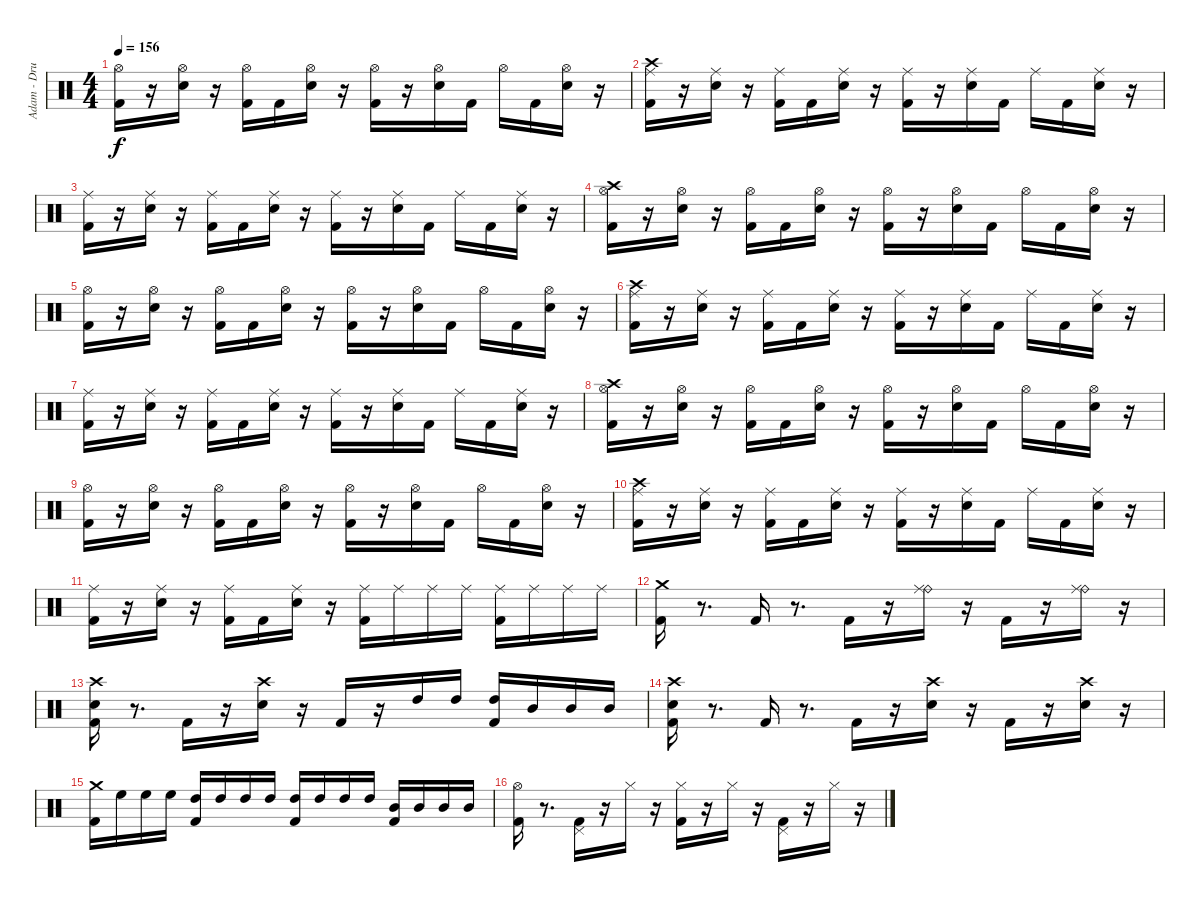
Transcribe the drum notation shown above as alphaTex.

\track ("Adam - Drums" "Adam - Dru") {instrument percussion}
\staff {score}
\articulation defaults
\ts (4 4)
\tempo 156
\clef neutral
\ks c
("Hi-Hat (open)" "Kick (hit) 2").16{dy f} r.16 ("Hi-Hat (open)" "Snare (hit) 2").16 r.16 ("Hi-Hat (open)" "Kick (hit) 2").16 "Kick (hit) 2".16 ("Hi-Hat (open)" "Snare (hit) 2").16 r.16 ("Hi-Hat (open)" "Kick (hit) 2").16 r.16 ("Hi-Hat (open)" "Snare (hit) 2").16 "Kick (hit) 2".16 "Hi-Hat (open)".16 "Kick (hit) 2".16 ("Hi-Hat (open)" "Snare (hit) 2").16 r.16 |
("Crash high (hit)" "Kick (hit) 2" "Ride (middle)").16 r.16 ("Snare (hit) 2" "Ride (middle)").16 r.16 ("Kick (hit) 2" "Ride (middle)").16 "Kick (hit) 2".16 ("Snare (hit) 2" "Ride (middle)").16 r.16 ("Ride (middle)" "Kick (hit) 2").16 r.16 ("Snare (hit) 2" "Ride (middle)").16 "Kick (hit) 2".16 "Ride (middle)".16 "Kick (hit) 2".16 ("Snare (hit) 2" "Ride (middle)").16 r.16 |
("Kick (hit) 2" "Ride (middle)").16 r.16 ("Snare (hit) 2" "Ride (middle)").16 r.16 ("Kick (hit) 2" "Ride (middle)").16 "Kick (hit) 2".16 ("Snare (hit) 2" "Ride (middle)").16 r.16 ("Kick (hit) 2" "Ride (middle)").16 r.16 ("Snare (hit) 2" "Ride (middle)").16 "Kick (hit) 2".16 "Ride (middle)".16 "Kick (hit) 2".16 ("Snare (hit) 2" "Ride (middle)").16 r.16 |
("Hi-Hat (open)" "Crash high (hit)" "Kick (hit) 2").16 r.16 ("Hi-Hat (open)" "Snare (hit) 2").16 r.16 ("Hi-Hat (open)" "Kick (hit) 2").16 "Kick (hit) 2".16 ("Hi-Hat (open)" "Snare (hit) 2").16 r.16 ("Hi-Hat (open)" "Kick (hit) 2").16 r.16 ("Hi-Hat (open)" "Snare (hit) 2").16 "Kick (hit) 2".16 "Hi-Hat (open)".16 "Kick (hit) 2".16 ("Hi-Hat (open)" "Snare (hit) 2").16 r.16 |
("Hi-Hat (open)" "Kick (hit) 2").16 r.16 ("Hi-Hat (open)" "Snare (hit) 2").16 r.16 ("Hi-Hat (open)" "Kick (hit) 2").16 "Kick (hit) 2".16 ("Hi-Hat (open)" "Snare (hit) 2").16 r.16 ("Hi-Hat (open)" "Kick (hit) 2").16 r.16 ("Hi-Hat (open)" "Snare (hit) 2").16 "Kick (hit) 2".16 "Hi-Hat (open)".16 "Kick (hit) 2".16 ("Hi-Hat (open)" "Snare (hit) 2").16 r.16 |
("Crash high (hit)" "Kick (hit) 2" "Ride (middle)").16 r.16 ("Snare (hit) 2" "Ride (middle)").16 r.16 ("Kick (hit) 2" "Ride (middle)").16 "Kick (hit) 2".16 ("Snare (hit) 2" "Ride (middle)").16 r.16 ("Ride (middle)" "Kick (hit) 2").16 r.16 ("Snare (hit) 2" "Ride (middle)").16 "Kick (hit) 2".16 "Ride (middle)".16 "Kick (hit) 2".16 ("Snare (hit) 2" "Ride (middle)").16 r.16 |
("Kick (hit) 2" "Ride (middle)").16 r.16 ("Snare (hit) 2" "Ride (middle)").16 r.16 ("Kick (hit) 2" "Ride (middle)").16 "Kick (hit) 2".16 ("Snare (hit) 2" "Ride (middle)").16 r.16 ("Kick (hit) 2" "Ride (middle)").16 r.16 ("Snare (hit) 2" "Ride (middle)").16 "Kick (hit) 2".16 "Ride (middle)".16 "Kick (hit) 2".16 ("Snare (hit) 2" "Ride (middle)").16 r.16 |
("Hi-Hat (open)" "Crash high (hit)" "Kick (hit) 2").16 r.16 ("Hi-Hat (open)" "Snare (hit) 2").16 r.16 ("Hi-Hat (open)" "Kick (hit) 2").16 "Kick (hit) 2".16 ("Hi-Hat (open)" "Snare (hit) 2").16 r.16 ("Hi-Hat (open)" "Kick (hit) 2").16 r.16 ("Hi-Hat (open)" "Snare (hit) 2").16 "Kick (hit) 2".16 "Hi-Hat (open)".16 "Kick (hit) 2".16 ("Hi-Hat (open)" "Snare (hit) 2").16 r.16 |
("Hi-Hat (open)" "Kick (hit) 2").16 r.16 ("Hi-Hat (open)" "Snare (hit) 2").16 r.16 ("Hi-Hat (open)" "Kick (hit) 2").16 "Kick (hit) 2".16 ("Hi-Hat (open)" "Snare (hit) 2").16 r.16 ("Hi-Hat (open)" "Kick (hit) 2").16 r.16 ("Hi-Hat (open)" "Snare (hit) 2").16 "Kick (hit) 2".16 "Hi-Hat (open)".16 "Kick (hit) 2".16 ("Hi-Hat (open)" "Snare (hit) 2").16 r.16 |
("Crash high (hit)" "Kick (hit) 2" "Ride (middle)").16 r.16 ("Snare (hit) 2" "Ride (middle)").16 r.16 ("Kick (hit) 2" "Ride (middle)").16 "Kick (hit) 2".16 ("Snare (hit) 2" "Ride (middle)").16 r.16 ("Ride (middle)" "Kick (hit) 2").16 r.16 ("Snare (hit) 2" "Ride (middle)").16 "Kick (hit) 2".16 "Ride (middle)".16 "Kick (hit) 2".16 ("Snare (hit) 2" "Ride (middle)").16 r.16 |
("Kick (hit) 2" "Ride (middle)").16 r.16 ("Snare (hit) 2" "Ride (middle)").16 r.16 ("Kick (hit) 2" "Ride (middle)").16 "Kick (hit) 2".16 ("Snare (hit) 2" "Ride (middle)").16 r.16 ("Ride (middle)" "Kick (hit) 2").16 "Ride (middle)".16 "Ride (middle)".16 "Ride (middle)".16 ("Ride (middle)" "Kick (hit) 2").16 "Ride (middle)".16 "Ride (middle)".16 "Ride (middle)".16 |
("Crash medium (hit)" "Kick (hit) 2").16 r.8{d} "Kick (hit) 2".16 r.8{d} "Kick (hit) 2".16 r.16 ("Ride (bell)" "Ride (middle)").16 r.16 "Kick (hit) 2".16 r.16 ("Ride (bell)" "Ride (middle)").16 r.16 |
("Snare (hit) 2" "Crash high (hit)" "Kick (hit) 2").16 r.8{d} "Kick (hit) 2".16 r.16 ("Crash high (hit)" "Snare (hit) 2").16 r.16 "Kick (hit) 2".16 r.16 "High Tom (hit)".16 "High Tom (hit)".16 ("High Tom (hit)" "Kick (hit) 2").16 "Mid Tom (hit)".16 "Mid Tom (hit)".16 "Mid Tom (hit)".16 |
("Crash high (hit)" "Snare (hit) 2" "Kick (hit) 2").16 r.8{d} "Kick (hit) 2".16 r.8{d} "Kick (hit) 2".16 r.16 ("Crash high (hit)" "Snare (hit) 2").16 r.16 "Kick (hit) 2".16 r.16 ("Crash high (hit)" "Snare (hit) 2").16 r.16 |
("Crash medium (hit)" "Kick (hit) 2").16 "High Floor Tom (hit)".16 "High Floor Tom (hit)".16 "High Floor Tom (hit)".16 ("Kick (hit) 2" "High Tom (hit)").16 "High Tom (hit)".16 "High Tom (hit)".16 "High Tom (hit)".16 ("Kick (hit) 2" "High Tom (hit)").16 "High Tom (hit)".16 "High Tom (hit)".16 "High Tom (hit)".16 ("Kick (hit) 2" "Mid Tom (hit)").16 "Mid Tom (hit)".16 "Mid Tom (hit)".16 "Mid Tom (hit)".16 |
("Kick (hit) 2" "Hi-Hat (open)").16 r.8{d} ("Kick (hit) 2" "Pedal Hi-Hat (hit)").16 r.16 "Hi-Hat (closed)".16 r.16 ("Kick (hit) 2" "Hi-Hat (closed)").16 r.16 "Hi-Hat (closed)".16 r.16 ("Kick (hit) 2" "Pedal Hi-Hat (hit)").16 r.16 "Hi-Hat (closed)".16 r.16
